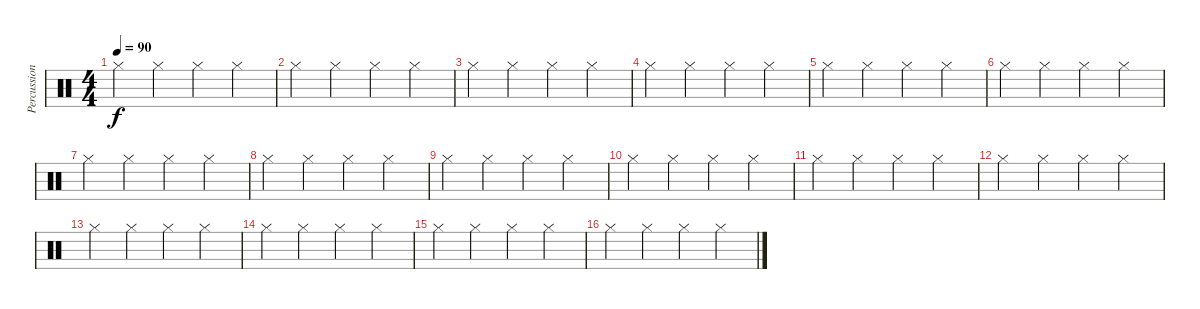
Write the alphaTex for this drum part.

\track ("Percussion" "Percussion") {instrument percussion}
\staff {score}
\articulation defaults
\ts (4 4)
\tempo 90
\clef neutral
\ks c "Hi-Hat (closed)".4{dy f} "Hi-Hat (closed)".4 "Hi-Hat (closed)".4 "Hi-Hat (closed)".4
|
"Hi-Hat (closed)".4 "Hi-Hat (closed)".4 "Hi-Hat (closed)".4 "Hi-Hat (closed)".4 |
"Hi-Hat (closed)".4 "Hi-Hat (closed)".4 "Hi-Hat (closed)".4 "Hi-Hat (closed)".4 |
"Hi-Hat (closed)".4 "Hi-Hat (closed)".4 "Hi-Hat (closed)".4 "Hi-Hat (closed)".4 |
"Hi-Hat (closed)".4 "Hi-Hat (closed)".4 "Hi-Hat (closed)".4 "Hi-Hat (closed)".4 |
"Hi-Hat (closed)".4 "Hi-Hat (closed)".4 "Hi-Hat (closed)".4 "Hi-Hat (closed)".4 |
"Hi-Hat (closed)".4 "Hi-Hat (closed)".4 "Hi-Hat (closed)".4 "Hi-Hat (closed)".4 |
"Hi-Hat (closed)".4 "Hi-Hat (closed)".4 "Hi-Hat (closed)".4 "Hi-Hat (closed)".4 |
"Hi-Hat (closed)".4 "Hi-Hat (closed)".4 "Hi-Hat (closed)".4 "Hi-Hat (closed)".4 |
"Hi-Hat (closed)".4 "Hi-Hat (closed)".4 "Hi-Hat (closed)".4 "Hi-Hat (closed)".4 |
"Hi-Hat (closed)".4 "Hi-Hat (closed)".4 "Hi-Hat (closed)".4 "Hi-Hat (closed)".4 |
"Hi-Hat (closed)".4 "Hi-Hat (closed)".4 "Hi-Hat (closed)".4 "Hi-Hat (closed)".4 |
"Hi-Hat (closed)".4 "Hi-Hat (closed)".4 "Hi-Hat (closed)".4 "Hi-Hat (closed)".4 |
"Hi-Hat (closed)".4 "Hi-Hat (closed)".4 "Hi-Hat (closed)".4 "Hi-Hat (closed)".4 |
"Hi-Hat (closed)".4 "Hi-Hat (closed)".4 "Hi-Hat (closed)".4 "Hi-Hat (closed)".4 |
"Hi-Hat (closed)".4 "Hi-Hat (closed)".4 "Hi-Hat (closed)".4 "Hi-Hat (closed)".4
